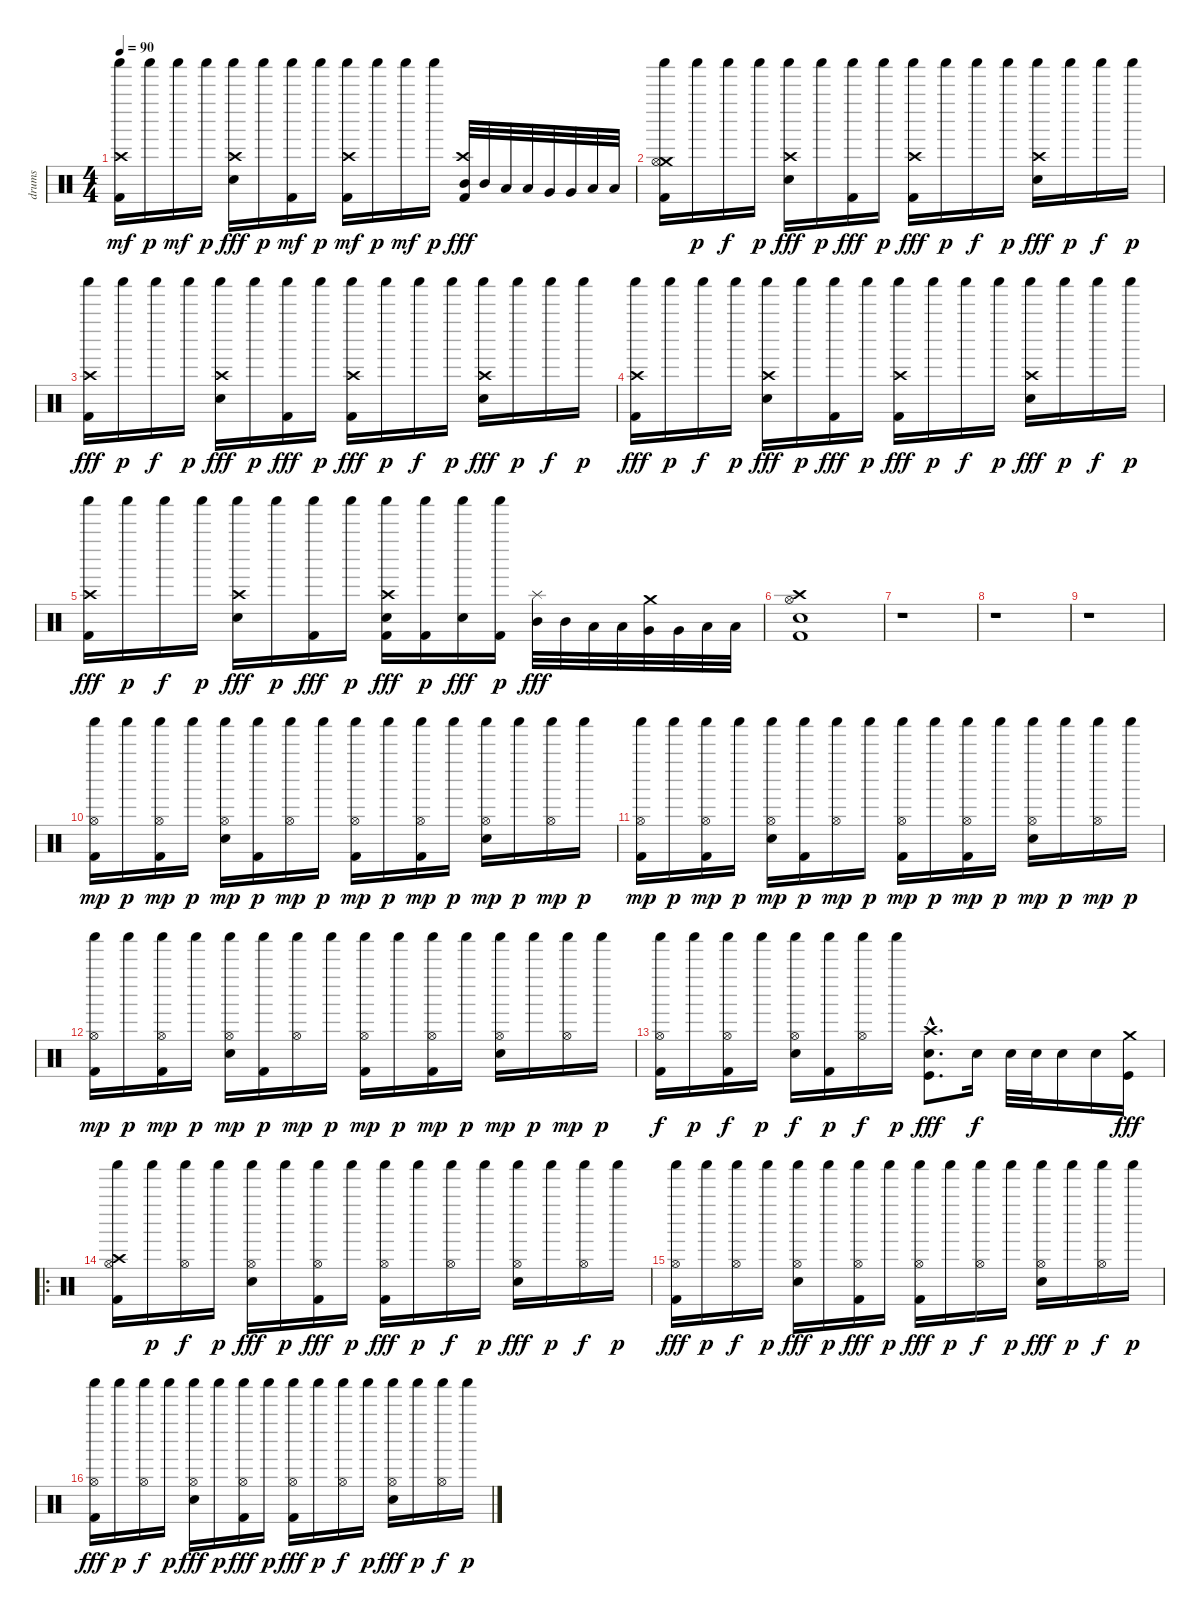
\track ("drums" "drums") {instrument percussion}
\staff {score}
\articulation defaults
\ts (4 4)
\tempo 90
\clef neutral
\ks c
("Kick (hit) 2" "Crash high (hit)" "Shaker (hit)").16{dy mf} "Shaker (hit)".16{dy p} "Shaker (hit)".16{dy mf} "Shaker (hit)".16{dy p} ("Crash high (hit)" "Shaker (hit)" "Snare (hit) 2").16{dy fff} "Shaker (hit)".16{dy p} ("Kick (hit) 2" "Shaker (hit)").16{dy mf} "Shaker (hit)".16{dy p} ("Kick (hit) 2" "Crash high (hit)" "Shaker (hit)").16{dy mf} "Shaker (hit)".16{dy p} "Shaker (hit)".16{dy mf} "Shaker (hit)".16{dy p} ("Kick (hit) 2" "Crash high (hit)" "Mid Tom (hit)").32{dy fff} "Mid Tom (hit)".32 "Low Tom (hit)".32 "Low Tom (hit)".32 "Very Low Tom (hit)".32 "Very Low Tom (hit)".32 "Low Floor Tom (hit)".32 "Low Floor Tom (hit)".32 |
("Kick (hit) 2" "Crash medium (hit)" "Shaker (hit)" "Hi-Hat (open)").16 "Shaker (hit)".16{dy p} "Shaker (hit)".16{dy f} "Shaker (hit)".16{dy p} ("Crash high (hit)" "Shaker (hit)" "Snare (hit) 2").16{dy fff} "Shaker (hit)".16{dy p} ("Kick (hit) 2" "Shaker (hit)").16{dy fff} "Shaker (hit)".16{dy p} ("Kick (hit) 2" "Crash high (hit)" "Shaker (hit)").16{dy fff} "Shaker (hit)".16{dy p} "Shaker (hit)".16{dy f} "Shaker (hit)".16{dy p} ("Crash high (hit)" "Shaker (hit)" "Snare (hit) 2").16{dy fff} "Shaker (hit)".16{dy p} "Shaker (hit)".16{dy f} "Shaker (hit)".16{dy p} |
("Kick (hit) 2" "Crash high (hit)" "Shaker (hit)").16{dy fff} "Shaker (hit)".16{dy p} "Shaker (hit)".16{dy f} "Shaker (hit)".16{dy p} ("Crash high (hit)" "Shaker (hit)" "Snare (hit) 2").16{dy fff} "Shaker (hit)".16{dy p} ("Kick (hit) 2" "Shaker (hit)").16{dy fff} "Shaker (hit)".16{dy p} ("Kick (hit) 2" "Crash high (hit)" "Shaker (hit)").16{dy fff} "Shaker (hit)".16{dy p} "Shaker (hit)".16{dy f} "Shaker (hit)".16{dy p} ("Crash high (hit)" "Shaker (hit)" "Snare (hit) 2").16{dy fff} "Shaker (hit)".16{dy p} "Shaker (hit)".16{dy f} "Shaker (hit)".16{dy p} |
("Kick (hit) 2" "Crash high (hit)" "Shaker (hit)").16{dy fff} "Shaker (hit)".16{dy p} "Shaker (hit)".16{dy f} "Shaker (hit)".16{dy p} ("Crash high (hit)" "Shaker (hit)" "Snare (hit) 2").16{dy fff} "Shaker (hit)".16{dy p} ("Kick (hit) 2" "Shaker (hit)").16{dy fff} "Shaker (hit)".16{dy p} ("Kick (hit) 2" "Crash high (hit)" "Shaker (hit)").16{dy fff} "Shaker (hit)".16{dy p} "Shaker (hit)".16{dy f} "Shaker (hit)".16{dy p} ("Crash high (hit)" "Shaker (hit)" "Snare (hit) 2").16{dy fff} "Shaker (hit)".16{dy p} "Shaker (hit)".16{dy f} "Shaker (hit)".16{dy p} |
("Kick (hit) 2" "Crash high (hit)" "Shaker (hit)").16{dy fff} "Shaker (hit)".16{dy p} "Shaker (hit)".16{dy f} "Shaker (hit)".16{dy p} ("Crash high (hit)" "Shaker (hit)" "Snare (hit) 2").16{dy fff} "Shaker (hit)".16{dy p} ("Kick (hit) 2" "Shaker (hit)").16{dy fff} "Shaker (hit)".16{dy p} ("Kick (hit) 2" "Crash high (hit)" "Shaker (hit)" "Snare (hit) 2").16{dy fff} ("Kick (hit) 2" "Shaker (hit)").16{dy p} ("Shaker (hit)" "Snare (hit) 2").16{dy fff} ("Kick (hit) 2" "Shaker (hit)").16{dy p} ("Splash (hit)" "Mid Tom (hit)").32{dy fff} "Mid Tom (hit)".32 "Low Tom (hit)".32 "Low Tom (hit)".32 ("Crash medium (hit)" "Very Low Tom (hit)").32 "Very Low Tom (hit)".32 "Low Floor Tom (hit)".32 "Low Floor Tom (hit)".32 |
("Kick (hit) 2" "Crash high (hit)" "Hi-Hat (open)" "Snare (hit) 2").1 |
r.1 |
r.1 |
r.1 |
("Kick (hit) 2" "Shaker (hit)" "Hi-Hat (open)").16{dy mp} "Shaker (hit)".16{dy p} ("Kick (hit) 2" "Shaker (hit)" "Hi-Hat (open)").16{dy mp} "Shaker (hit)".16{dy p} ("Shaker (hit)" "Hi-Hat (open)" "Snare (hit) 2").16{dy mp} ("Kick (hit) 2" "Shaker (hit)").16{dy p} ("Shaker (hit)" "Hi-Hat (open)").16{dy mp} "Shaker (hit)".16{dy p} ("Kick (hit) 2" "Shaker (hit)" "Hi-Hat (open)").16{dy mp} "Shaker (hit)".16{dy p} ("Kick (hit) 2" "Shaker (hit)" "Hi-Hat (open)").16{dy mp} "Shaker (hit)".16{dy p} ("Shaker (hit)" "Hi-Hat (open)" "Snare (hit) 2").16{dy mp} "Shaker (hit)".16{dy p} ("Shaker (hit)" "Hi-Hat (open)").16{dy mp} "Shaker (hit)".16{dy p} |
("Kick (hit) 2" "Shaker (hit)" "Hi-Hat (open)").16{dy mp} "Shaker (hit)".16{dy p} ("Kick (hit) 2" "Shaker (hit)" "Hi-Hat (open)").16{dy mp} "Shaker (hit)".16{dy p} ("Shaker (hit)" "Hi-Hat (open)" "Snare (hit) 2").16{dy mp} ("Kick (hit) 2" "Shaker (hit)").16{dy p} ("Shaker (hit)" "Hi-Hat (open)").16{dy mp} "Shaker (hit)".16{dy p} ("Kick (hit) 2" "Shaker (hit)" "Hi-Hat (open)").16{dy mp} "Shaker (hit)".16{dy p} ("Kick (hit) 2" "Shaker (hit)" "Hi-Hat (open)").16{dy mp} "Shaker (hit)".16{dy p} ("Shaker (hit)" "Hi-Hat (open)" "Snare (hit) 2").16{dy mp} "Shaker (hit)".16{dy p} ("Shaker (hit)" "Hi-Hat (open)").16{dy mp} "Shaker (hit)".16{dy p} |
("Kick (hit) 2" "Shaker (hit)" "Hi-Hat (open)").16{dy mp} "Shaker (hit)".16{dy p} ("Kick (hit) 2" "Shaker (hit)" "Hi-Hat (open)").16{dy mp} "Shaker (hit)".16{dy p} ("Shaker (hit)" "Hi-Hat (open)" "Snare (hit) 2").16{dy mp} ("Kick (hit) 2" "Shaker (hit)").16{dy p} ("Shaker (hit)" "Hi-Hat (open)").16{dy mp} "Shaker (hit)".16{dy p} ("Kick (hit) 2" "Shaker (hit)" "Hi-Hat (open)").16{dy mp} "Shaker (hit)".16{dy p} ("Kick (hit) 2" "Shaker (hit)" "Hi-Hat (open)").16{dy mp} "Shaker (hit)".16{dy p} ("Shaker (hit)" "Hi-Hat (open)" "Snare (hit) 2").16{dy mp} "Shaker (hit)".16{dy p} ("Shaker (hit)" "Hi-Hat (open)").16{dy mp} "Shaker (hit)".16{dy p} |
("Kick (hit) 2" "Shaker (hit)" "Hi-Hat (open)").16{dy f} "Shaker (hit)".16{dy p} ("Kick (hit) 2" "Shaker (hit)" "Hi-Hat (open)").16{dy f} "Shaker (hit)".16{dy p} ("Shaker (hit)" "Hi-Hat (open)" "Snare (hit) 2").16{dy f} ("Kick (hit) 2" "Shaker (hit)").16{dy p} ("Shaker (hit)" "Hi-Hat (open)").16{dy f} "Shaker (hit)".16{dy p} ("Kick (hit)"{hac} "Crash high (hit)"{hac} "Electric Snare (hit)"{hac}).8{d dy fff} "Electric Snare (hit)".16{dy f} "Electric Snare (hit)".32 "Electric Snare (hit)".32 "Electric Snare (hit)".16 "Electric Snare (hit)".16 ("Kick (hit)" "Crash medium (hit)").16{dy fff} |
\ro
("Kick (hit) 2" "Crash high (hit)" "Shaker (hit)" "Hi-Hat (open)").16 "Shaker (hit)".16{dy p} ("Shaker (hit)" "Hi-Hat (open)").16{dy f} "Shaker (hit)".16{dy p} ("Shaker (hit)" "Hi-Hat (open)" "Snare (hit) 2").16{dy fff} "Shaker (hit)".16{dy p} ("Kick (hit) 2" "Shaker (hit)" "Hi-Hat (open)").16{dy fff} "Shaker (hit)".16{dy p} ("Kick (hit) 2" "Shaker (hit)" "Hi-Hat (open)").16{dy fff} "Shaker (hit)".16{dy p} ("Shaker (hit)" "Hi-Hat (open)").16{dy f} "Shaker (hit)".16{dy p} ("Shaker (hit)" "Hi-Hat (open)" "Snare (hit) 2").16{dy fff} "Shaker (hit)".16{dy p} ("Shaker (hit)" "Hi-Hat (open)").16{dy f} "Shaker (hit)".16{dy p} |
("Kick (hit) 2" "Shaker (hit)" "Hi-Hat (open)").16{dy fff} "Shaker (hit)".16{dy p} ("Shaker (hit)" "Hi-Hat (open)").16{dy f} "Shaker (hit)".16{dy p} ("Shaker (hit)" "Hi-Hat (open)" "Snare (hit) 2").16{dy fff} "Shaker (hit)".16{dy p} ("Kick (hit) 2" "Shaker (hit)" "Hi-Hat (open)").16{dy fff} "Shaker (hit)".16{dy p} ("Kick (hit) 2" "Shaker (hit)" "Hi-Hat (open)").16{dy fff} "Shaker (hit)".16{dy p} ("Shaker (hit)" "Hi-Hat (open)").16{dy f} "Shaker (hit)".16{dy p} ("Shaker (hit)" "Hi-Hat (open)" "Snare (hit) 2").16{dy fff} "Shaker (hit)".16{dy p} ("Shaker (hit)" "Hi-Hat (open)").16{dy f} "Shaker (hit)".16{dy p} |
("Kick (hit) 2" "Shaker (hit)" "Hi-Hat (open)").16{dy fff} "Shaker (hit)".16{dy p} ("Shaker (hit)" "Hi-Hat (open)").16{dy f} "Shaker (hit)".16{dy p} ("Shaker (hit)" "Hi-Hat (open)" "Snare (hit) 2").16{dy fff} "Shaker (hit)".16{dy p} ("Kick (hit) 2" "Shaker (hit)" "Hi-Hat (open)").16{dy fff} "Shaker (hit)".16{dy p} ("Kick (hit) 2" "Shaker (hit)" "Hi-Hat (open)").16{dy fff} "Shaker (hit)".16{dy p} ("Shaker (hit)" "Hi-Hat (open)").16{dy f} "Shaker (hit)".16{dy p} ("Shaker (hit)" "Hi-Hat (open)" "Snare (hit) 2").16{dy fff} "Shaker (hit)".16{dy p} ("Shaker (hit)" "Hi-Hat (open)").16{dy f} "Shaker (hit)".16{dy p}
